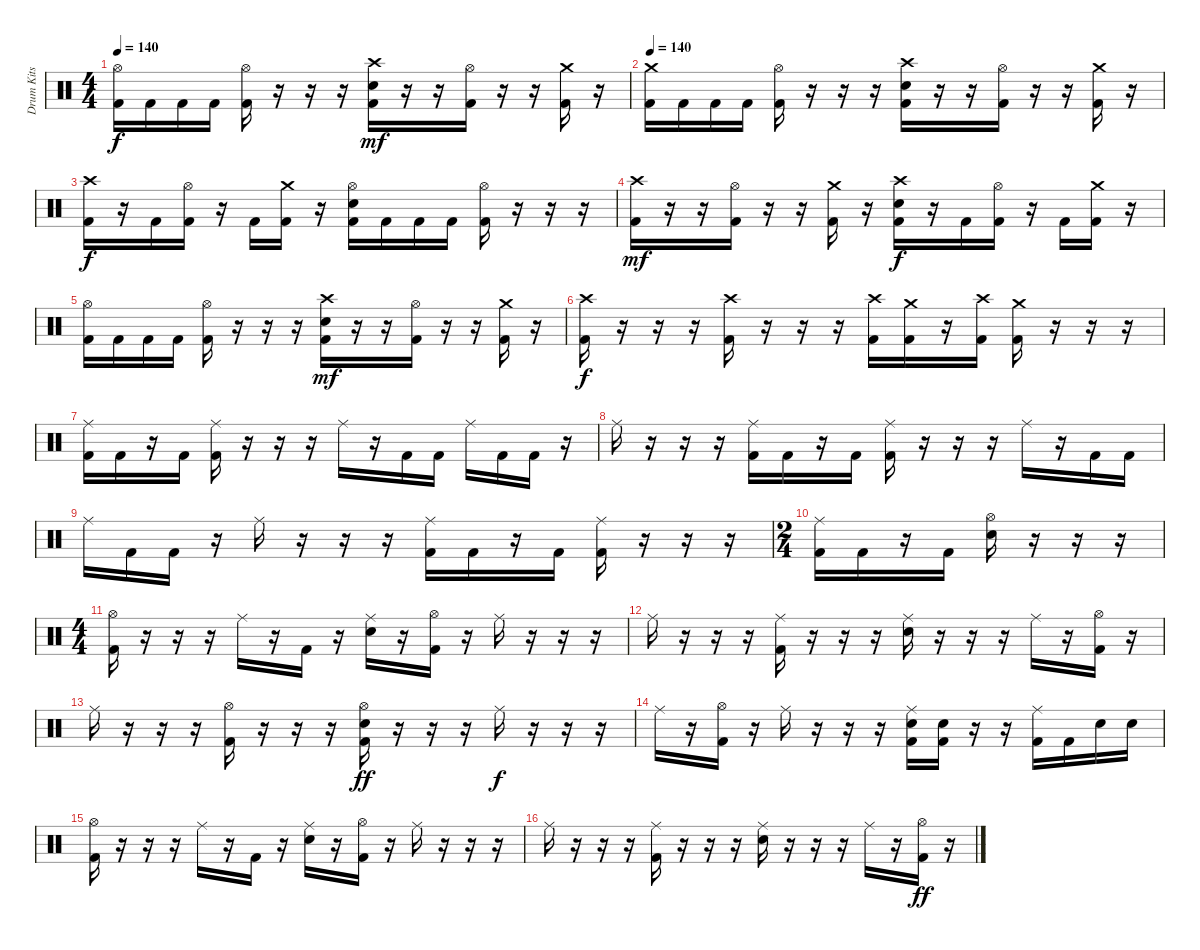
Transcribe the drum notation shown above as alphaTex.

\track ("Drum Kits" "Drum Kits") {instrument percussion}
\staff {score}
\articulation defaults
\ts (4 4)
\tempo 140
\clef neutral
\ks c
("Hi-Hat (open)" "Kick (hit) 2").16{dy f} "Kick (hit) 2".16 "Kick (hit) 2".16 "Kick (hit) 2".16 ("Hi-Hat (open)" "Kick (hit) 2").16 r.16 r.16 r.16 ("Crash high (hit)" "Electric Snare (hit)" "Kick (hit) 2").16{dy mf} r.16 r.16 ("Hi-Hat (open)" "Kick (hit) 2").16 r.16 r.16 ("Crash medium (hit)" "Kick (hit) 2").16 r.16 |
\tempo 140
("Crash medium (hit)" "Kick (hit) 2").16 "Kick (hit) 2".16 "Kick (hit) 2".16 "Kick (hit) 2".16 ("Hi-Hat (open)" "Kick (hit) 2").16 r.16 r.16 r.16 ("Crash high (hit)" "Electric Snare (hit)" "Kick (hit) 2").16 r.16 r.16 ("Hi-Hat (open)" "Kick (hit) 2").16 r.16 r.16 ("Crash medium (hit)" "Kick (hit) 2").16 r.16 |
("Crash high (hit)" "Kick (hit) 2").16{dy f} r.16 "Kick (hit) 2".16 ("Hi-Hat (open)" "Kick (hit) 2").16 r.16 "Kick (hit) 2".16 ("Crash medium (hit)" "Kick (hit) 2").16 r.16 ("Hi-Hat (open)" "Electric Snare (hit)" "Kick (hit) 2").16 "Kick (hit) 2".16 "Kick (hit) 2".16 "Kick (hit) 2".16 ("Hi-Hat (open)" "Kick (hit) 2").16 r.16 r.16 r.16 |
("Crash high (hit)" "Kick (hit) 2").16{dy mf} r.16 r.16 ("Hi-Hat (open)" "Kick (hit) 2").16 r.16 r.16 ("Crash medium (hit)" "Kick (hit) 2").16 r.16 ("Crash high (hit)" "Electric Snare (hit)" "Kick (hit) 2").16{dy f} r.16 "Kick (hit) 2".16 ("Hi-Hat (open)" "Kick (hit) 2").16 r.16 "Kick (hit) 2".16 ("Crash medium (hit)" "Kick (hit) 2").16 r.16 |
("Hi-Hat (open)" "Kick (hit) 2").16 "Kick (hit) 2".16 "Kick (hit) 2".16 "Kick (hit) 2".16 ("Hi-Hat (open)" "Kick (hit) 2").16 r.16 r.16 r.16 ("Crash high (hit)" "Electric Snare (hit)" "Kick (hit) 2").16{dy mf} r.16 r.16 ("Hi-Hat (open)" "Kick (hit) 2").16 r.16 r.16 ("Crash medium (hit)" "Kick (hit) 2").16 r.16 |
("Crash high (hit)" "Kick (hit) 2").16{dy f} r.16 r.16 r.16 ("Crash high (hit)" "Kick (hit) 2").16 r.16 r.16 r.16 ("Crash high (hit)" "Kick (hit) 2").16 ("Crash medium (hit)" "Kick (hit) 2").16 r.16 ("Crash high (hit)" "Kick (hit) 2").16 ("Crash medium (hit)" "Kick (hit) 2").16 r.16 r.16 r.16 |
("Ride (middle)" "Kick (hit) 2").16 "Kick (hit) 2".16 r.16 "Kick (hit) 2".16 ("Ride (middle)" "Kick (hit) 2").16 r.16 r.16 r.16 "Ride (middle)".16 r.16 "Kick (hit) 2".16 "Kick (hit) 2".16 "Ride (middle)".16 "Kick (hit) 2".16 "Kick (hit) 2".16 r.16 |
"Ride (middle)".16 r.16 r.16 r.16 ("Ride (middle)" "Kick (hit) 2").16 "Kick (hit) 2".16 r.16 "Kick (hit) 2".16 ("Ride (middle)" "Kick (hit) 2").16 r.16 r.16 r.16 "Ride (middle)".16 r.16 "Kick (hit) 2".16 "Kick (hit) 2".16 |
"Ride (middle)".16 "Kick (hit) 2".16 "Kick (hit) 2".16 r.16 "Ride (middle)".16 r.16 r.16 r.16 ("Ride (middle)" "Kick (hit) 2").16 "Kick (hit) 2".16 r.16 "Kick (hit) 2".16 ("Ride (middle)" "Kick (hit) 2").16 r.16 r.16 r.16 |
\ts (2 4)
("Ride (middle)" "Kick (hit) 2").16 "Kick (hit) 2".16 r.16 "Kick (hit) 2".16 ("Hi-Hat (open)" "Electric Snare (hit)").16 r.16 r.16 r.16 |
\ts (4 4)
("Hi-Hat (open)" "Kick (hit) 2").16 r.16 r.16 r.16 "Ride (middle)".16 r.16 "Kick (hit) 2".16 r.16 ("Ride (middle)" "Electric Snare (hit)").16 r.16 ("Hi-Hat (open)" "Kick (hit) 2").16 r.16 "Ride (middle)".16 r.16 r.16 r.16 |
"Ride (middle)".16 r.16 r.16 r.16 ("Ride (middle)" "Kick (hit) 2").16 r.16 r.16 r.16 ("Ride (middle)" "Electric Snare (hit)").16 r.16 r.16 r.16 "Ride (middle)".16 r.16 ("Hi-Hat (open)" "Kick (hit) 2").16 r.16 |
"Ride (middle)".16 r.16 r.16 r.16 ("Hi-Hat (open)" "Kick (hit) 2").16 r.16 r.16 r.16 ("Hi-Hat (open)" "Electric Snare (hit)" "Kick (hit) 2").16{dy ff} r.16 r.16 r.16 "Ride (middle)".16{dy f} r.16 r.16 r.16 |
"Ride (middle)".16 r.16 ("Hi-Hat (open)" "Kick (hit) 2").16 r.16 "Ride (middle)".16 r.16 r.16 r.16 ("Ride (middle)" "Electric Snare (hit)" "Kick (hit) 2").16 ("Electric Snare (hit)" "Kick (hit) 2").16 r.16 r.16 ("Ride (middle)" "Kick (hit) 2").16 "Kick (hit) 2".16 "Electric Snare (hit)".16 "Electric Snare (hit)".16 |
("Hi-Hat (open)" "Kick (hit) 2").16 r.16 r.16 r.16 "Ride (middle)".16 r.16 "Kick (hit) 2".16 r.16 ("Ride (middle)" "Electric Snare (hit)").16 r.16 ("Hi-Hat (open)" "Kick (hit) 2").16 r.16 "Ride (middle)".16 r.16 r.16 r.16 |
"Ride (middle)".16 r.16 r.16 r.16 ("Ride (middle)" "Kick (hit) 2").16 r.16 r.16 r.16 ("Ride (middle)" "Electric Snare (hit)").16 r.16 r.16 r.16 "Ride (middle)".16 r.16 ("Hi-Hat (open)" "Kick (hit) 2").16{dy ff} r.16
